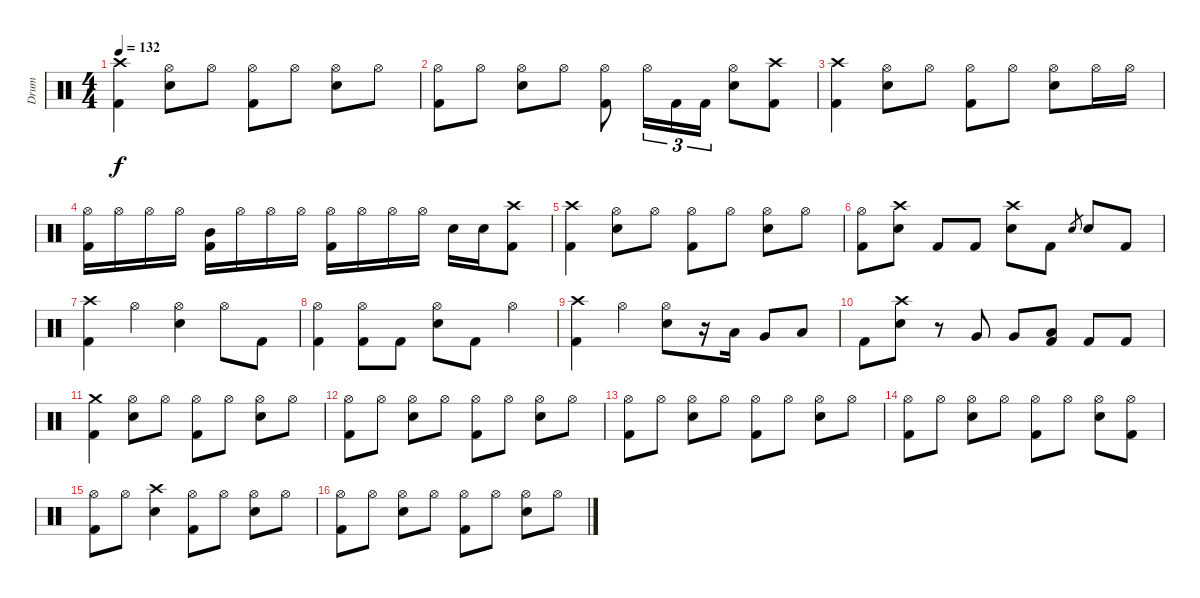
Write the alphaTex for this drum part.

\track ("Drum" "Drum") {instrument percussion}
\staff {score}
\articulation defaults
\ts (4 4)
\tempo 132
\clef neutral
\ks c
("Crash high (hit)" "Kick (hit) 2").4{dy f} ("Hi-Hat (open)" "Snare (hit) 2").8 "Hi-Hat (open)".8 ("Hi-Hat (open)" "Kick (hit) 2").8 "Hi-Hat (open)".8 ("Hi-Hat (open)" "Snare (hit) 2").8 "Hi-Hat (open)".8 |
("Hi-Hat (open)" "Kick (hit) 2").8 "Hi-Hat (open)".8 ("Hi-Hat (open)" "Snare (hit) 2").8 "Hi-Hat (open)".8 ("Hi-Hat (open)" "Kick (hit) 2").8 "Hi-Hat (open)".16{tu (3 2)} "Kick (hit) 2".16{tu (3 2)} "Kick (hit) 2".16{tu (3 2)} ("Hi-Hat (open)" "Snare (hit) 2").8 ("Crash high (hit)" "Kick (hit) 2").8 |
("Crash high (hit)" "Kick (hit) 2").4 ("Hi-Hat (open)" "Snare (hit) 2").8 "Hi-Hat (open)".8 ("Hi-Hat (open)" "Kick (hit) 2").8 "Hi-Hat (open)".8 ("Hi-Hat (open)" "Snare (hit) 2").8 "Hi-Hat (open)".16 "Hi-Hat (open)".16 |
("Hi-Hat (open)" "Kick (hit) 2").16 "Hi-Hat (open)".16 "Hi-Hat (open)".16 "Hi-Hat (open)".16 ("Mid Tom (hit)" "Kick (hit) 2").16 "Hi-Hat (open)".16 "Hi-Hat (open)".16 "Hi-Hat (open)".16 ("Hi-Hat (open)" "Kick (hit) 2").16 "Hi-Hat (open)".16 "Hi-Hat (open)".16 "Hi-Hat (open)".16 "Snare (hit) 2".16 "Snare (hit) 2".16 ("Crash high (hit)" "Kick (hit) 2").8 |
("Crash high (hit)" "Kick (hit) 2").4 ("Hi-Hat (open)" "Snare (hit) 2").8 "Hi-Hat (open)".8 ("Hi-Hat (open)" "Kick (hit) 2").8 "Hi-Hat (open)".8 ("Hi-Hat (open)" "Snare (hit) 2").8 "Hi-Hat (open)".8 |
("Hi-Hat (open)" "Kick (hit) 2").8 ("Crash high (hit)" "Snare (hit) 2").8 "Kick (hit) 2".8 "Kick (hit) 2".8 ("Crash high (hit)" "Snare (hit) 2").8 "Kick (hit) 2".8 "Snare (hit) 2".8{gr} "Snare (hit) 2".8 "Kick (hit) 2".8 |
("Crash high (hit)" "Kick (hit) 2").4 "Hi-Hat (open)".4 ("Hi-Hat (open)" "Snare (hit) 2").4 "Hi-Hat (open)".8 "Kick (hit) 2".8 |
("Hi-Hat (open)" "Kick (hit) 2").4 ("Hi-Hat (open)" "Kick (hit) 2").8 "Kick (hit) 2".8 ("Hi-Hat (open)" "Snare (hit) 2").8 "Kick (hit) 2".8 "Hi-Hat (open)".4 |
("Crash high (hit)" "Kick (hit) 2").4 "Hi-Hat (open)".4 ("Hi-Hat (open)" "Snare (hit) 2").8 r.16 "Low Tom (hit)".16 "Very Low Tom (hit)".8 "Low Floor Tom (hit)".8 |
"Kick (hit) 2".8 ("Crash high (hit)" "Snare (hit) 2").8 r.8 "Very Low Tom (hit)".8 "Very Low Tom (hit)".8 ("Low Floor Tom (hit)" "Kick (hit) 2").8 "Kick (hit) 2".8 "Kick (hit) 2".8 |
("Crash medium (hit)" "Kick (hit) 2").4 ("Hi-Hat (open)" "Snare (hit) 2").8 "Hi-Hat (open)".8 ("Hi-Hat (open)" "Kick (hit) 2").8 "Hi-Hat (open)".8 ("Hi-Hat (open)" "Snare (hit) 2").8 "Hi-Hat (open)".8 |
("Hi-Hat (open)" "Kick (hit) 2").8 "Hi-Hat (open)".8 ("Hi-Hat (open)" "Snare (hit) 2").8 "Hi-Hat (open)".8 ("Hi-Hat (open)" "Kick (hit) 2").8 "Hi-Hat (open)".8 ("Hi-Hat (open)" "Snare (hit) 2").8 "Hi-Hat (open)".8 |
("Hi-Hat (open)" "Kick (hit) 2").8 "Hi-Hat (open)".8 ("Hi-Hat (open)" "Snare (hit) 2").8 "Hi-Hat (open)".8 ("Hi-Hat (open)" "Kick (hit) 2").8 "Hi-Hat (open)".8 ("Hi-Hat (open)" "Snare (hit) 2").8 "Hi-Hat (open)".8 |
("Hi-Hat (open)" "Kick (hit) 2").8 "Hi-Hat (open)".8 ("Hi-Hat (open)" "Snare (hit) 2").8 "Hi-Hat (open)".8 ("Hi-Hat (open)" "Kick (hit) 2").8 "Hi-Hat (open)".8 ("Hi-Hat (open)" "Snare (hit) 2").8 ("Hi-Hat (open)" "Kick (hit) 2").8 |
("Hi-Hat (open)" "Kick (hit) 2").8 "Hi-Hat (open)".8 ("Crash high (hit)" "Snare (hit) 2").4 ("Hi-Hat (open)" "Kick (hit) 2").8 "Hi-Hat (open)".8 ("Hi-Hat (open)" "Snare (hit) 2").8 "Hi-Hat (open)".8 |
("Hi-Hat (open)" "Kick (hit) 2").8 "Hi-Hat (open)".8 ("Hi-Hat (open)" "Snare (hit) 2").8 "Hi-Hat (open)".8 ("Hi-Hat (open)" "Kick (hit) 2").8 "Hi-Hat (open)".8 ("Hi-Hat (open)" "Snare (hit) 2").8 "Hi-Hat (open)".8
